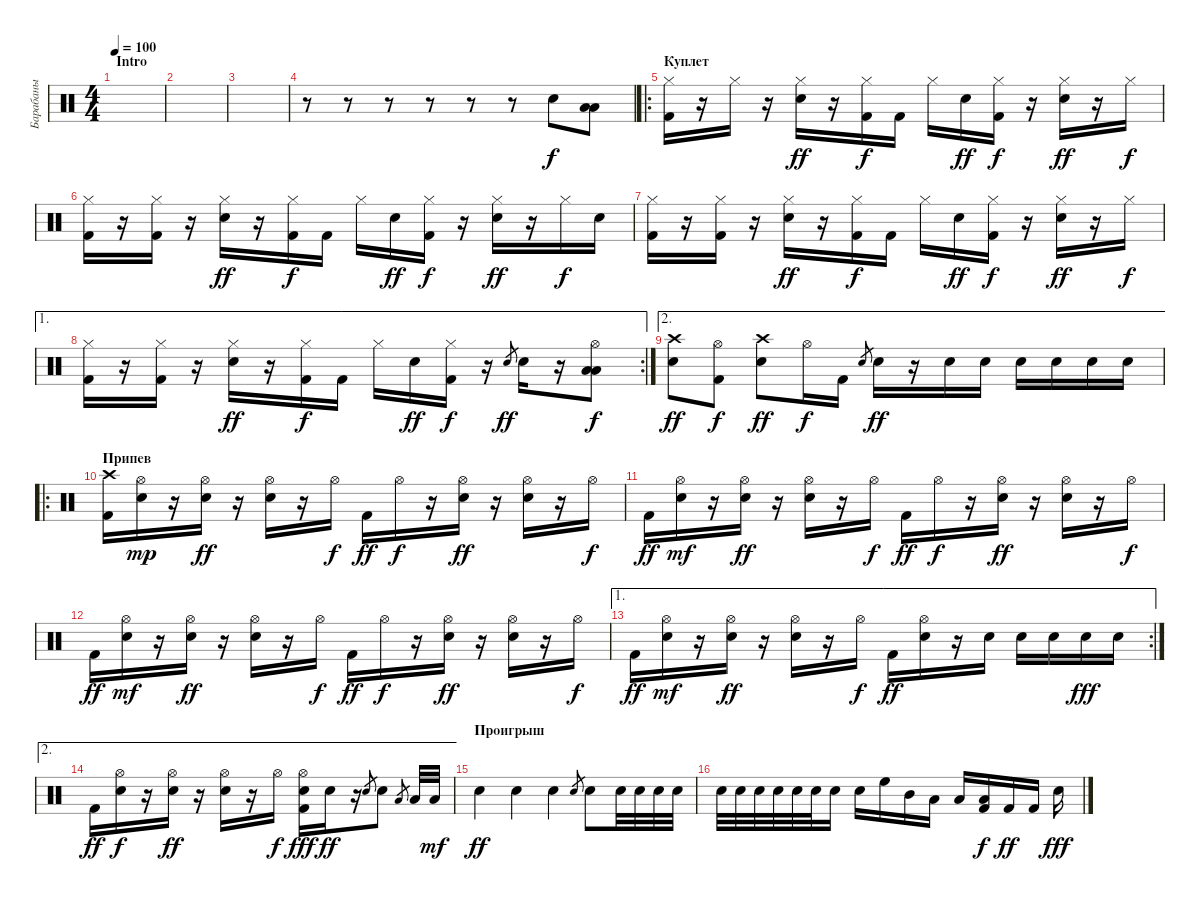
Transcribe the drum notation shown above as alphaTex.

\track ("Барабаны" "Барабаны") {instrument percussion}
\staff {score}
\articulation defaults
\ts (4 4)
\section ("" "Intro")
\tempo 100
\clef neutral
\ks c
|
|
|
r.8 r.8 r.8 r.8 r.8 r.8 "Electric Snare (hit)".8 ("Low Tom (hit)" "Low Floor Tom (hit)").8{dy f} |
\ro
\section ("" "Куплет")
("Hi-Hat (closed)" "Kick (hit) 2").16 r.16 "Hi-Hat (closed)".16 r.16 ("Hi-Hat (closed)" "Electric Snare (hit)").16{dy ff} r.16 ("Hi-Hat (closed)" "Kick (hit) 2").16{dy f} "Kick (hit) 2".16 "Hi-Hat (closed)".16 "Electric Snare (hit)".16{dy ff} ("Hi-Hat (closed)" "Kick (hit) 2").16{dy f} r.16 ("Hi-Hat (closed)" "Electric Snare (hit)").16{dy ff} r.16 "Hi-Hat (closed)".16{dy f} |
("Hi-Hat (closed)" "Kick (hit) 2").16 r.16 ("Hi-Hat (closed)" "Kick (hit) 2").16 r.16 ("Hi-Hat (closed)" "Electric Snare (hit)").16{dy ff} r.16 ("Hi-Hat (closed)" "Kick (hit) 2").16{dy f} "Kick (hit) 2".16 "Hi-Hat (closed)".16 "Electric Snare (hit)".16{dy ff} ("Hi-Hat (closed)" "Kick (hit) 2").16{dy f} r.16 ("Hi-Hat (closed)" "Electric Snare (hit)").16{dy ff} r.16 "Hi-Hat (closed)".16{dy f} "Electric Snare (hit)".16 |
("Hi-Hat (closed)" "Kick (hit) 2").16 r.16 ("Hi-Hat (closed)" "Kick (hit) 2").16 r.16 ("Hi-Hat (closed)" "Electric Snare (hit)").16{dy ff} r.16 ("Hi-Hat (closed)" "Kick (hit) 2").16{dy f} "Kick (hit) 2".16 "Hi-Hat (closed)".16 "Electric Snare (hit)".16{dy ff} ("Hi-Hat (closed)" "Kick (hit) 2").16{dy f} r.16 ("Hi-Hat (closed)" "Electric Snare (hit)").16{dy ff} r.16 "Hi-Hat (closed)".16{dy f} |
\ae 1
\rc 2
("Hi-Hat (closed)" "Kick (hit) 2").16 r.16 ("Hi-Hat (closed)" "Kick (hit) 2").16 r.16 ("Hi-Hat (closed)" "Electric Snare (hit)").16{dy ff} r.16 ("Hi-Hat (closed)" "Kick (hit) 2").16{dy f} "Kick (hit) 2".16 "Hi-Hat (closed)".16 "Electric Snare (hit)".16{dy ff} ("Hi-Hat (closed)" "Kick (hit) 2").16{dy f} r.16 "Electric Snare (hit)".8{gr dy ff} "Electric Snare (hit)".16 r.16 ("Hi-Hat (open)" "Low Tom (hit)" "Low Floor Tom (hit)").8{dy f} |
\ae 2
("Crash high (hit)" "Electric Snare (hit)").8{dy ff} ("Hi-Hat (open)" "Kick (hit) 2").8{dy f} ("Crash high (hit)" "Electric Snare (hit)").8{dy ff} "Hi-Hat (open)".16{dy f} "Kick (hit) 2".16 "Electric Snare (hit)".8{gr} "Electric Snare (hit)".16{dy ff} r.16 "Electric Snare (hit)".16 "Electric Snare (hit)".16 "Electric Snare (hit)".16 "Electric Snare (hit)".16 "Electric Snare (hit)".16 "Electric Snare (hit)".16 |
\ro
\section ("" "Припев")
("Crash high (hit)" "Kick (hit) 2").16 ("Hi-Hat (open)" "Electric Snare (hit)").16{dy mp} r.16 ("Hi-Hat (open)" "Electric Snare (hit)").16{dy ff} r.16 ("Hi-Hat (open)" "Electric Snare (hit)").16 r.16 "Hi-Hat (open)".16{dy f} "Kick (hit) 2".16{dy ff} "Hi-Hat (open)".16{dy f} r.16 ("Hi-Hat (open)" "Electric Snare (hit)").16{dy ff} r.16 ("Hi-Hat (open)" "Electric Snare (hit)").16 r.16 "Hi-Hat (open)".16{dy f} |
"Kick (hit) 2".16{dy ff} ("Hi-Hat (open)" "Electric Snare (hit)").16{dy mf} r.16 ("Hi-Hat (open)" "Electric Snare (hit)").16{dy ff} r.16 ("Hi-Hat (open)" "Electric Snare (hit)").16 r.16 "Hi-Hat (open)".16{dy f} "Kick (hit) 2".16{dy ff} "Hi-Hat (open)".16{dy f} r.16 ("Hi-Hat (open)" "Electric Snare (hit)").16{dy ff} r.16 ("Hi-Hat (open)" "Electric Snare (hit)").16 r.16 "Hi-Hat (open)".16{dy f} |
"Kick (hit) 2".16{dy ff} ("Hi-Hat (open)" "Electric Snare (hit)").16{dy mf} r.16 ("Hi-Hat (open)" "Electric Snare (hit)").16{dy ff} r.16 ("Hi-Hat (open)" "Electric Snare (hit)").16 r.16 "Hi-Hat (open)".16{dy f} "Kick (hit) 2".16{dy ff} "Hi-Hat (open)".16{dy f} r.16 ("Hi-Hat (open)" "Electric Snare (hit)").16{dy ff} r.16 ("Hi-Hat (open)" "Electric Snare (hit)").16 r.16 "Hi-Hat (open)".16{dy f} |
\ae 1
\rc 2 "Kick (hit) 2".16{dy ff}
("Hi-Hat (open)" "Electric Snare (hit)").16{dy mf} r.16 ("Hi-Hat (open)" "Electric Snare (hit)").16{dy ff} r.16 ("Hi-Hat (open)" "Electric Snare (hit)").16 r.16 "Hi-Hat (open)".16{dy f} "Kick (hit) 2".16{dy ff} ("Hi-Hat (open)" "Electric Snare (hit)").16 r.16 "Electric Snare (hit)".16 "Electric Snare (hit)".16 "Electric Snare (hit)".16 "Electric Snare (hit)".16{dy fff} "Electric Snare (hit)".16 |
\ae 2 "Kick (hit) 2".16{dy ff}
("Hi-Hat (open)" "Electric Snare (hit)").16{dy f} r.16 ("Hi-Hat (open)" "Electric Snare (hit)").16{dy ff} r.16 ("Hi-Hat (open)" "Electric Snare (hit)").16 r.16 "Hi-Hat (open)".16{dy f} ("Hi-Hat (open)" "Electric Snare (hit)" "Kick (hit) 2").16{dy fff} "Electric Snare (hit)".16{dy ff} r.16 "Electric Snare (hit)".8{gr} "Electric Snare (hit)".8 "Low Floor Tom (hit)".8{gr} "Low Floor Tom (hit)".32 "Low Floor Tom (hit)".32{dy mf} |
\section ("" "Проигрыш")
"Electric Snare (hit)".4{dy ff} "Electric Snare (hit)".4 "Electric Snare (hit)".4 "Electric Snare (hit)".8{gr} "Electric Snare (hit)".8 "Electric Snare (hit)".32 "Electric Snare (hit)".32 "Electric Snare (hit)".32 "Electric Snare (hit)".32 |
"Electric Snare (hit)".32 "Electric Snare (hit)".32 "Electric Snare (hit)".32 "Electric Snare (hit)".32 "Electric Snare (hit)".32 "Electric Snare (hit)".32 "Electric Snare (hit)".16 "Electric Snare (hit)".16 "High Floor Tom (hit)".16 "Mid Tom (hit)".16 "Low Tom (hit)".16 "Low Floor Tom (hit)".16 ("Low Floor Tom (hit)" "Kick (hit) 2").16{dy f} "Kick (hit) 2".16{dy ff} "Kick (hit) 2".16 "Electric Snare (hit)".16{dy fff}
